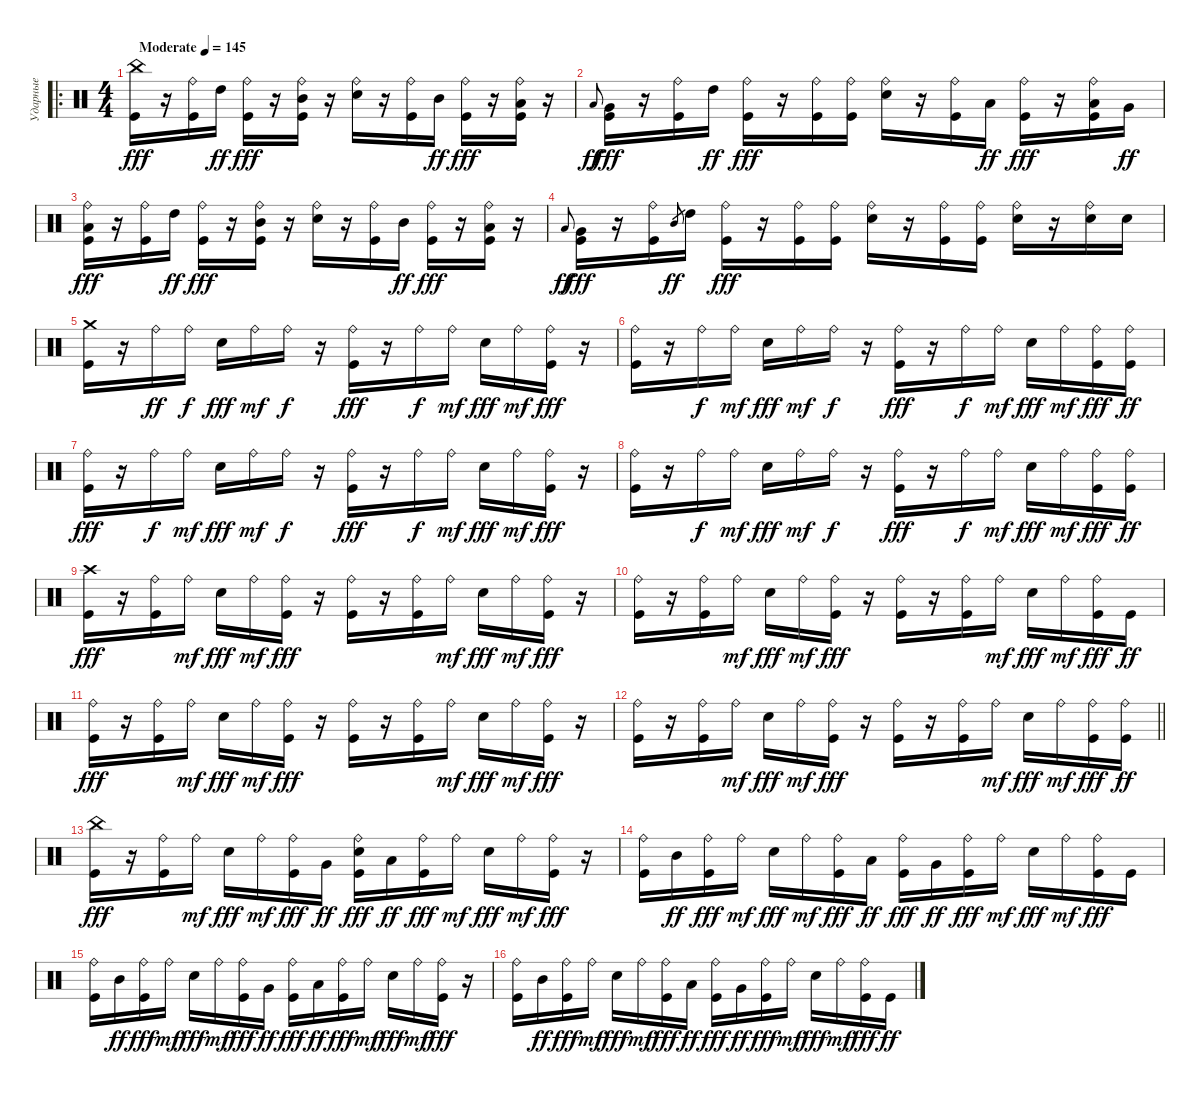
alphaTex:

\track ("Ударные" "Ударные") {instrument percussion}
\staff {score}
\articulation defaults
\ro
\ts (4 4)
\tempo (145 "Moderate")
\clef neutral
\ks c
("China (hit)" "Kick (hit)").16{dy fff} r.16 ("Ride (bell)" "Kick (hit)").16 "High Tom (hit)".16{dy ff} ("Ride (bell)" "Kick (hit)").16{dy fff} r.16 ("Mid Tom (hit)" "Ride (bell)" "Kick (hit)").16 r.16 ("Ride (bell)" "Electric Snare (hit)").16 r.16 ("Ride (bell)" "Kick (hit)").16 "Mid Tom (hit)".16{dy ff} ("Ride (bell)" "Kick (hit)").16{dy fff} r.16 ("Low Floor Tom (hit)" "Ride (bell)" "Kick (hit)").16 r.16 |
"Low Tom (hit)".8{gr onbeat dy ff} ("Very Low Tom (hit)" "Kick (hit)").16{dy fff} r.16 ("Ride (bell)" "Kick (hit)").16 "High Tom (hit)".16{dy ff} ("Ride (bell)" "Kick (hit)").16{dy fff} r.16 ("Ride (bell)" "Kick (hit)").16 ("Ride (bell)" "Kick (hit)").16 ("Ride (bell)" "Electric Snare (hit)").16 r.16 ("Ride (bell)" "Kick (hit)").16 "Low Tom (hit)".16{dy ff} ("Ride (bell)" "Kick (hit)").16{dy fff} r.16 ("Low Floor Tom (hit)" "Ride (bell)" "Kick (hit)").16 "Very Low Tom (hit)".16{dy ff} |
("Low Tom (hit)" "Ride (bell)" "Kick (hit)").16{dy fff} r.16 ("Ride (bell)" "Kick (hit)").16 "High Tom (hit)".16{dy ff} ("Ride (bell)" "Kick (hit)").16{dy fff} r.16 ("Mid Tom (hit)" "Ride (bell)" "Kick (hit)").16 r.16 ("Ride (bell)" "Electric Snare (hit)").16 r.16 ("Ride (bell)" "Kick (hit)").16 "Mid Tom (hit)".16{dy ff} ("Ride (bell)" "Kick (hit)").16{dy fff} r.16 ("Low Floor Tom (hit)" "Ride (bell)" "Kick (hit)").16 r.16 |
"Low Tom (hit)".8{gr onbeat dy ff} ("Very Low Tom (hit)" "Kick (hit)").16{dy fff} r.16 ("Ride (bell)" "Kick (hit)").16 "Mid Tom (hit)".8{gr dy ff} "High Tom (hit)".16 ("Ride (bell)" "Kick (hit)").16{dy fff} r.16 ("Ride (bell)" "Kick (hit)").16 ("Ride (bell)" "Kick (hit)").16 ("Ride (bell)" "Electric Snare (hit)").16 r.16 ("Ride (bell)" "Kick (hit)").16 ("Ride (bell)" "Kick (hit)").16 ("Ride (bell)" "Electric Snare (hit)").16 r.16 ("Ride (bell)" "Electric Snare (hit)").16 "Electric Snare (hit)".16 |
("Crash medium (hit)" "Kick (hit)").16 r.16 "Ride (bell)".16{dy ff} "Ride (bell)".16{dy f} "Electric Snare (hit)".16{dy fff} "Ride (bell)".16{dy mf} "Ride (bell)".16{dy f} r.16 ("Ride (bell)" "Kick (hit)").16{dy fff} r.16 "Ride (bell)".16{dy f} "Ride (bell)".16{dy mf} "Electric Snare (hit)".16{dy fff} "Ride (bell)".16{dy mf} ("Ride (bell)" "Kick (hit)").16{dy fff} r.16 |
("Ride (bell)" "Kick (hit)").16 r.16 "Ride (bell)".16{dy f} "Ride (bell)".16{dy mf} "Electric Snare (hit)".16{dy fff} "Ride (bell)".16{dy mf} "Ride (bell)".16{dy f} r.16 ("Ride (bell)" "Kick (hit)").16{dy fff} r.16 "Ride (bell)".16{dy f} "Ride (bell)".16{dy mf} "Electric Snare (hit)".16{dy fff} "Ride (bell)".16{dy mf} ("Ride (bell)" "Kick (hit)").16{dy fff} ("Ride (bell)" "Kick (hit)").16{dy ff} |
("Ride (bell)" "Kick (hit)").16{dy fff} r.16 "Ride (bell)".16{dy f} "Ride (bell)".16{dy mf} "Electric Snare (hit)".16{dy fff} "Ride (bell)".16{dy mf} "Ride (bell)".16{dy f} r.16 ("Ride (bell)" "Kick (hit)").16{dy fff} r.16 "Ride (bell)".16{dy f} "Ride (bell)".16{dy mf} "Electric Snare (hit)".16{dy fff} "Ride (bell)".16{dy mf} ("Ride (bell)" "Kick (hit)").16{dy fff} r.16 |
("Ride (bell)" "Kick (hit)").16 r.16 "Ride (bell)".16{dy f} "Ride (bell)".16{dy mf} "Electric Snare (hit)".16{dy fff} "Ride (bell)".16{dy mf} "Ride (bell)".16{dy f} r.16 ("Ride (bell)" "Kick (hit)").16{dy fff} r.16 "Ride (bell)".16{dy f} "Ride (bell)".16{dy mf} "Electric Snare (hit)".16{dy fff} "Ride (bell)".16{dy mf} ("Ride (bell)" "Kick (hit)").16{dy fff} ("Ride (bell)" "Kick (hit)").16{dy ff} |
("Crash high (hit)" "Kick (hit)").16{dy fff} r.16 ("Ride (bell)" "Kick (hit)").16 "Ride (bell)".16{dy mf} "Electric Snare (hit)".16{dy fff} "Ride (bell)".16{dy mf} ("Ride (bell)" "Kick (hit)").16{dy fff} r.16 ("Ride (bell)" "Kick (hit)").16 r.16 ("Ride (bell)" "Kick (hit)").16 "Ride (bell)".16{dy mf} "Electric Snare (hit)".16{dy fff} "Ride (bell)".16{dy mf} ("Ride (bell)" "Kick (hit)").16{dy fff} r.16 |
("Ride (bell)" "Kick (hit)").16 r.16 ("Ride (bell)" "Kick (hit)").16 "Ride (bell)".16{dy mf} "Electric Snare (hit)".16{dy fff} "Ride (bell)".16{dy mf} ("Ride (bell)" "Kick (hit)").16{dy fff} r.16 ("Ride (bell)" "Kick (hit)").16 r.16 ("Ride (bell)" "Kick (hit)").16 "Ride (bell)".16{dy mf} "Electric Snare (hit)".16{dy fff} "Ride (bell)".16{dy mf} ("Ride (bell)" "Kick (hit)").16{dy fff} "Kick (hit)".16{dy ff} |
("Ride (bell)" "Kick (hit)").16{dy fff} r.16 ("Ride (bell)" "Kick (hit)").16 "Ride (bell)".16{dy mf} "Electric Snare (hit)".16{dy fff} "Ride (bell)".16{dy mf} ("Ride (bell)" "Kick (hit)").16{dy fff} r.16 ("Ride (bell)" "Kick (hit)").16 r.16 ("Ride (bell)" "Kick (hit)").16 "Ride (bell)".16{dy mf} "Electric Snare (hit)".16{dy fff} "Ride (bell)".16{dy mf} ("Ride (bell)" "Kick (hit)").16{dy fff} r.16 |
\barLineRight lightlight
("Ride (bell)" "Kick (hit)").16 r.16 ("Ride (bell)" "Kick (hit)").16 "Ride (bell)".16{dy mf} "Electric Snare (hit)".16{dy fff} "Ride (bell)".16{dy mf} ("Ride (bell)" "Kick (hit)").16{dy fff} r.16 ("Ride (bell)" "Kick (hit)").16 r.16 ("Ride (bell)" "Kick (hit)").16 "Ride (bell)".16{dy mf} "Electric Snare (hit)".16{dy fff} "Ride (bell)".16{dy mf} ("Ride (bell)" "Kick (hit)").16{dy fff} ("Ride (bell)" "Kick (hit)").16{dy ff} |
("China (hit)" "Kick (hit)").16{dy fff} r.16 ("Ride (bell)" "Kick (hit)").16 "Ride (bell)".16{dy mf} "Electric Snare (hit)".16{dy fff} "Ride (bell)".16{dy mf} ("Ride (bell)" "Kick (hit)").16{dy fff} "Very Low Tom (hit)".16{dy ff} ("Ride (bell)" "Electric Snare (hit)" "Kick (hit)").16{dy fff} "Low Tom (hit)".16{dy ff} ("Ride (bell)" "Kick (hit)").16{dy fff} "Ride (bell)".16{dy mf} "Electric Snare (hit)".16{dy fff} "Ride (bell)".16{dy mf} ("Ride (bell)" "Kick (hit)").16{dy fff} r.16 |
("Ride (bell)" "Kick (hit)").16 "Mid Tom (hit)".16{dy ff} ("Ride (bell)" "Kick (hit)").16{dy fff} "Ride (bell)".16{dy mf} "Electric Snare (hit)".16{dy fff} "Ride (bell)".16{dy mf} ("Ride (bell)" "Kick (hit)").16{dy fff} "Low Floor Tom (hit)".16{dy ff} ("Ride (bell)" "Kick (hit)").16{dy fff} "Very Low Tom (hit)".16{dy ff} ("Ride (bell)" "Kick (hit)").16{dy fff} "Ride (bell)".16{dy mf} "Electric Snare (hit)".16{dy fff} "Ride (bell)".16{dy mf} ("Ride (bell)" "Kick (hit)").16{dy fff} "Kick (hit)".16 |
("Ride (bell)" "Kick (hit)").16 "Mid Tom (hit)".16{dy ff} ("Ride (bell)" "Kick (hit)").16{dy fff} "Ride (bell)".16{dy mf} "Electric Snare (hit)".16{dy fff} "Ride (bell)".16{dy mf} ("Ride (bell)" "Kick (hit)").16{dy fff} "Very Low Tom (hit)".16{dy ff} ("Ride (bell)" "Kick (hit)").16{dy fff} "Low Tom (hit)".16{dy ff} ("Ride (bell)" "Kick (hit)").16{dy fff} "Ride (bell)".16{dy mf} "Electric Snare (hit)".16{dy fff} "Ride (bell)".16{dy mf} ("Ride (bell)" "Kick (hit)").16{dy fff} r.16 |
("Ride (bell)" "Kick (hit)").16 "Mid Tom (hit)".16{dy ff} ("Ride (bell)" "Kick (hit)").16{dy fff} "Ride (bell)".16{dy mf} "Electric Snare (hit)".16{dy fff} "Ride (bell)".16{dy mf} ("Ride (bell)" "Kick (hit)").16{dy fff} "Low Floor Tom (hit)".16{dy ff} ("Ride (bell)" "Kick (hit)").16{dy fff} "Very Low Tom (hit)".16{dy ff} ("Ride (bell)" "Kick (hit)").16{dy fff} "Ride (bell)".16{dy mf} "Electric Snare (hit)".16{dy fff} "Ride (bell)".16{dy mf} ("Ride (bell)" "Kick (hit)").16{dy fff} "Kick (hit)".16{dy ff}
